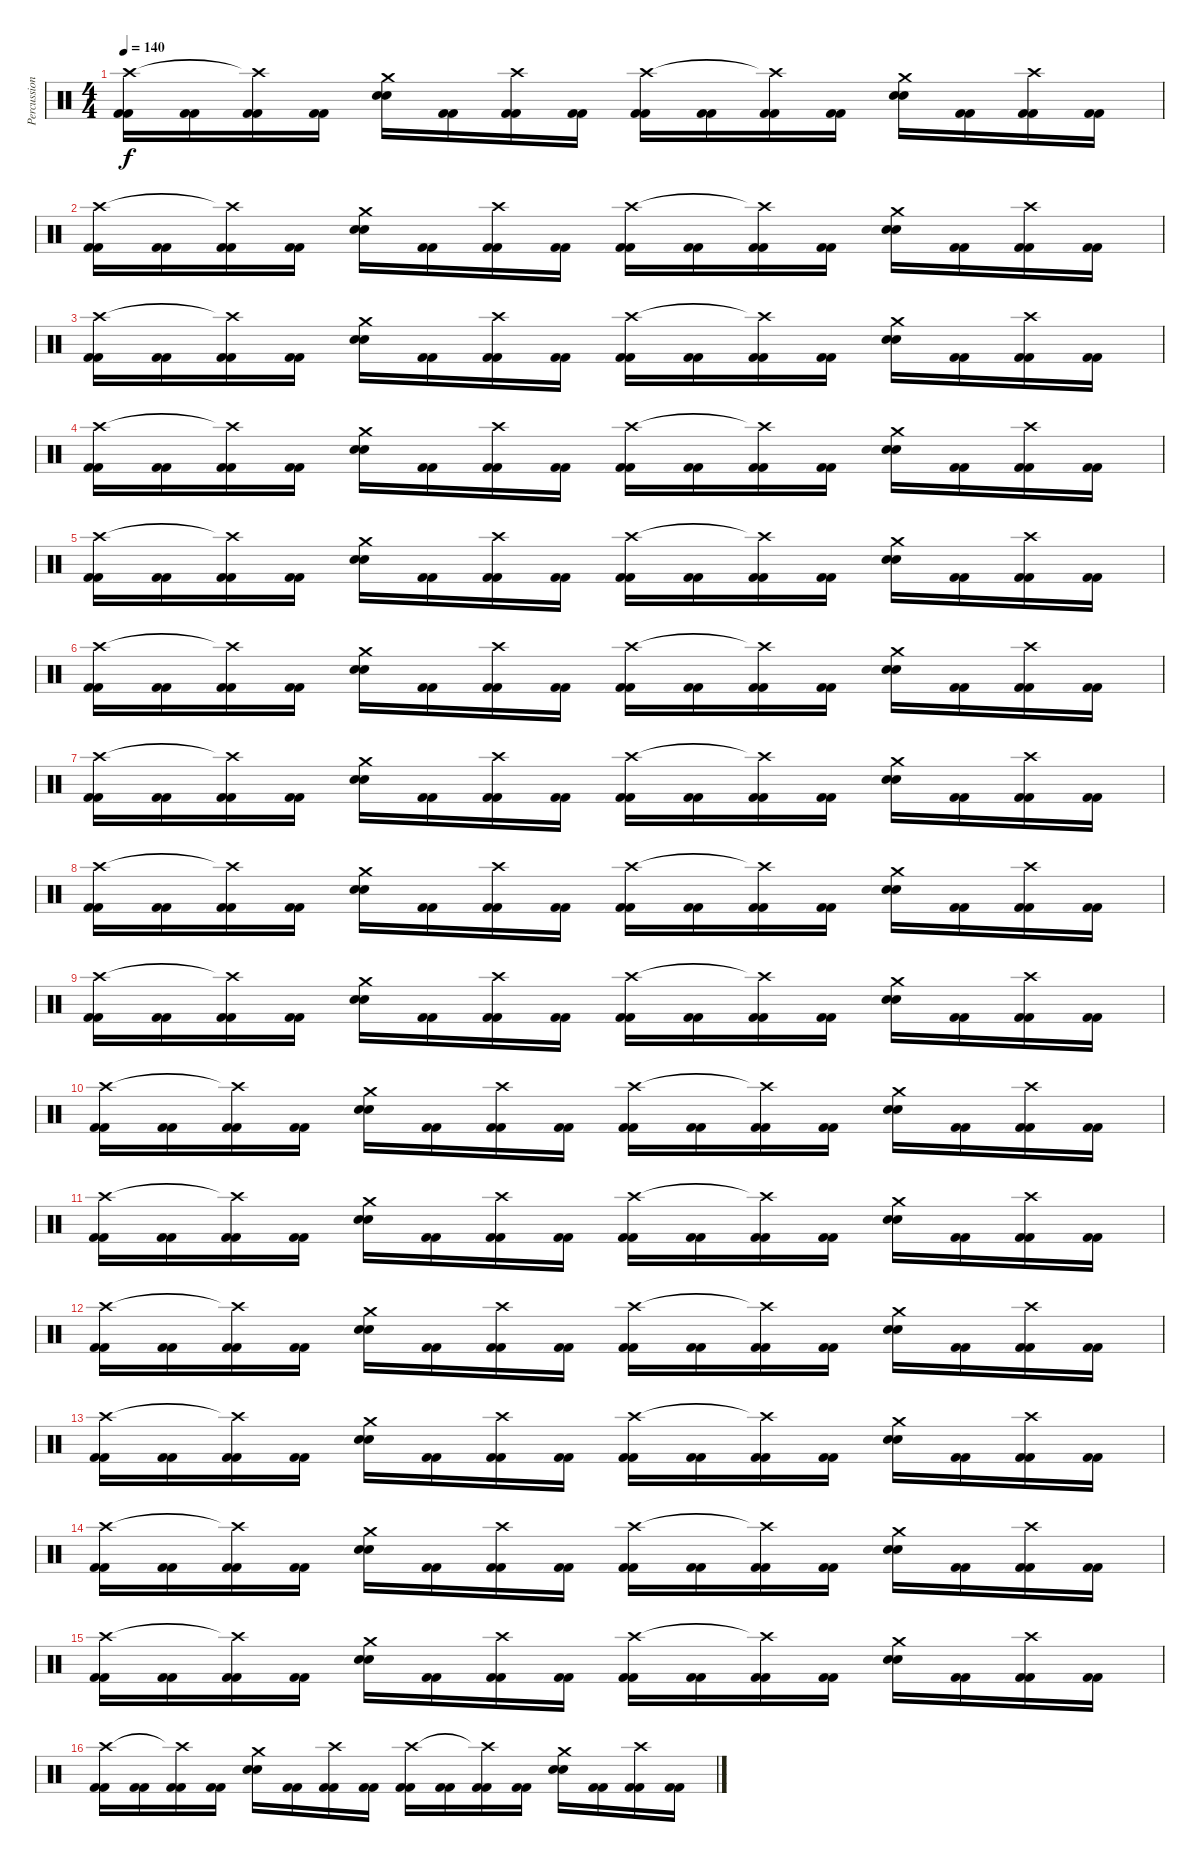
\track ("Percussion" "Percussion") {instrument percussion}
\staff {score}
\articulation defaults
\ts (4 4)
\tempo 140
\clef neutral
\ks c
("Kick (hit) 2" "Kick (hit) 2" "Crash high (hit)").16{dy f} ("Kick (hit) 2" "Kick (hit) 2").16 ("Kick (hit) 2" "Kick (hit) 2" "Crash high (hit)"{t}).16 ("Kick (hit) 2" "Kick (hit) 2").16 ("Snare (hit) 2" "Snare (hit) 2" "Crash medium (hit)").16 ("Kick (hit) 2" "Kick (hit) 2").16 ("Kick (hit) 2" "Kick (hit) 2" "Crash high (hit)").16 ("Kick (hit) 2" "Kick (hit) 2").16 ("Kick (hit) 2" "Kick (hit) 2" "Crash high (hit)").16 ("Kick (hit) 2" "Kick (hit) 2").16 ("Kick (hit) 2" "Kick (hit) 2" "Crash high (hit)"{t}).16 ("Kick (hit) 2" "Kick (hit) 2").16 ("Snare (hit) 2" "Snare (hit) 2" "Crash medium (hit)").16 ("Kick (hit) 2" "Kick (hit) 2").16 ("Kick (hit) 2" "Kick (hit) 2" "Crash high (hit)").16 ("Kick (hit) 2" "Kick (hit) 2").16 |
("Kick (hit) 2" "Kick (hit) 2" "Crash high (hit)").16 ("Kick (hit) 2" "Kick (hit) 2").16 ("Kick (hit) 2" "Kick (hit) 2" "Crash high (hit)"{t}).16 ("Kick (hit) 2" "Kick (hit) 2").16 ("Snare (hit) 2" "Snare (hit) 2" "Crash medium (hit)").16 ("Kick (hit) 2" "Kick (hit) 2").16 ("Kick (hit) 2" "Kick (hit) 2" "Crash high (hit)").16 ("Kick (hit) 2" "Kick (hit) 2").16 ("Kick (hit) 2" "Kick (hit) 2" "Crash high (hit)").16 ("Kick (hit) 2" "Kick (hit) 2").16 ("Kick (hit) 2" "Kick (hit) 2" "Crash high (hit)"{t}).16 ("Kick (hit) 2" "Kick (hit) 2").16 ("Snare (hit) 2" "Snare (hit) 2" "Crash medium (hit)").16 ("Kick (hit) 2" "Kick (hit) 2").16 ("Kick (hit) 2" "Kick (hit) 2" "Crash high (hit)").16 ("Kick (hit) 2" "Kick (hit) 2").16 |
("Kick (hit) 2" "Kick (hit) 2" "Crash high (hit)").16 ("Kick (hit) 2" "Kick (hit) 2").16 ("Kick (hit) 2" "Kick (hit) 2" "Crash high (hit)"{t}).16 ("Kick (hit) 2" "Kick (hit) 2").16 ("Snare (hit) 2" "Snare (hit) 2" "Crash medium (hit)").16 ("Kick (hit) 2" "Kick (hit) 2").16 ("Kick (hit) 2" "Kick (hit) 2" "Crash high (hit)").16 ("Kick (hit) 2" "Kick (hit) 2").16 ("Kick (hit) 2" "Kick (hit) 2" "Crash high (hit)").16 ("Kick (hit) 2" "Kick (hit) 2").16 ("Kick (hit) 2" "Kick (hit) 2" "Crash high (hit)"{t}).16 ("Kick (hit) 2" "Kick (hit) 2").16 ("Snare (hit) 2" "Snare (hit) 2" "Crash medium (hit)").16 ("Kick (hit) 2" "Kick (hit) 2").16 ("Kick (hit) 2" "Kick (hit) 2" "Crash high (hit)").16 ("Kick (hit) 2" "Kick (hit) 2").16 |
("Kick (hit) 2" "Kick (hit) 2" "Crash high (hit)").16 ("Kick (hit) 2" "Kick (hit) 2").16 ("Kick (hit) 2" "Kick (hit) 2" "Crash high (hit)"{t}).16 ("Kick (hit) 2" "Kick (hit) 2").16 ("Snare (hit) 2" "Snare (hit) 2" "Crash medium (hit)").16 ("Kick (hit) 2" "Kick (hit) 2").16 ("Kick (hit) 2" "Kick (hit) 2" "Crash high (hit)").16 ("Kick (hit) 2" "Kick (hit) 2").16 ("Kick (hit) 2" "Kick (hit) 2" "Crash high (hit)").16 ("Kick (hit) 2" "Kick (hit) 2").16 ("Kick (hit) 2" "Kick (hit) 2" "Crash high (hit)"{t}).16 ("Kick (hit) 2" "Kick (hit) 2").16 ("Snare (hit) 2" "Snare (hit) 2" "Crash medium (hit)").16 ("Kick (hit) 2" "Kick (hit) 2").16 ("Kick (hit) 2" "Kick (hit) 2" "Crash high (hit)").16 ("Kick (hit) 2" "Kick (hit) 2").16 |
("Kick (hit) 2" "Kick (hit) 2" "Crash high (hit)").16 ("Kick (hit) 2" "Kick (hit) 2").16 ("Kick (hit) 2" "Kick (hit) 2" "Crash high (hit)"{t}).16 ("Kick (hit) 2" "Kick (hit) 2").16 ("Snare (hit) 2" "Snare (hit) 2" "Crash medium (hit)").16 ("Kick (hit) 2" "Kick (hit) 2").16 ("Kick (hit) 2" "Kick (hit) 2" "Crash high (hit)").16 ("Kick (hit) 2" "Kick (hit) 2").16 ("Kick (hit) 2" "Kick (hit) 2" "Crash high (hit)").16 ("Kick (hit) 2" "Kick (hit) 2").16 ("Kick (hit) 2" "Kick (hit) 2" "Crash high (hit)"{t}).16 ("Kick (hit) 2" "Kick (hit) 2").16 ("Snare (hit) 2" "Snare (hit) 2" "Crash medium (hit)").16 ("Kick (hit) 2" "Kick (hit) 2").16 ("Kick (hit) 2" "Kick (hit) 2" "Crash high (hit)").16 ("Kick (hit) 2" "Kick (hit) 2").16 |
("Kick (hit) 2" "Kick (hit) 2" "Crash high (hit)").16 ("Kick (hit) 2" "Kick (hit) 2").16 ("Kick (hit) 2" "Kick (hit) 2" "Crash high (hit)"{t}).16 ("Kick (hit) 2" "Kick (hit) 2").16 ("Snare (hit) 2" "Snare (hit) 2" "Crash medium (hit)").16 ("Kick (hit) 2" "Kick (hit) 2").16 ("Kick (hit) 2" "Kick (hit) 2" "Crash high (hit)").16 ("Kick (hit) 2" "Kick (hit) 2").16 ("Kick (hit) 2" "Kick (hit) 2" "Crash high (hit)").16 ("Kick (hit) 2" "Kick (hit) 2").16 ("Kick (hit) 2" "Kick (hit) 2" "Crash high (hit)"{t}).16 ("Kick (hit) 2" "Kick (hit) 2").16 ("Snare (hit) 2" "Snare (hit) 2" "Crash medium (hit)").16 ("Kick (hit) 2" "Kick (hit) 2").16 ("Kick (hit) 2" "Kick (hit) 2" "Crash high (hit)").16 ("Kick (hit) 2" "Kick (hit) 2").16 |
("Kick (hit) 2" "Kick (hit) 2" "Crash high (hit)").16 ("Kick (hit) 2" "Kick (hit) 2").16 ("Kick (hit) 2" "Kick (hit) 2" "Crash high (hit)"{t}).16 ("Kick (hit) 2" "Kick (hit) 2").16 ("Snare (hit) 2" "Snare (hit) 2" "Crash medium (hit)").16 ("Kick (hit) 2" "Kick (hit) 2").16 ("Kick (hit) 2" "Kick (hit) 2" "Crash high (hit)").16 ("Kick (hit) 2" "Kick (hit) 2").16 ("Kick (hit) 2" "Kick (hit) 2" "Crash high (hit)").16 ("Kick (hit) 2" "Kick (hit) 2").16 ("Kick (hit) 2" "Kick (hit) 2" "Crash high (hit)"{t}).16 ("Kick (hit) 2" "Kick (hit) 2").16 ("Snare (hit) 2" "Snare (hit) 2" "Crash medium (hit)").16 ("Kick (hit) 2" "Kick (hit) 2").16 ("Kick (hit) 2" "Kick (hit) 2" "Crash high (hit)").16 ("Kick (hit) 2" "Kick (hit) 2").16 |
("Kick (hit) 2" "Kick (hit) 2" "Crash high (hit)").16 ("Kick (hit) 2" "Kick (hit) 2").16 ("Kick (hit) 2" "Kick (hit) 2" "Crash high (hit)"{t}).16 ("Kick (hit) 2" "Kick (hit) 2").16 ("Snare (hit) 2" "Snare (hit) 2" "Crash medium (hit)").16 ("Kick (hit) 2" "Kick (hit) 2").16 ("Kick (hit) 2" "Kick (hit) 2" "Crash high (hit)").16 ("Kick (hit) 2" "Kick (hit) 2").16 ("Kick (hit) 2" "Kick (hit) 2" "Crash high (hit)").16 ("Kick (hit) 2" "Kick (hit) 2").16 ("Kick (hit) 2" "Kick (hit) 2" "Crash high (hit)"{t}).16 ("Kick (hit) 2" "Kick (hit) 2").16 ("Snare (hit) 2" "Snare (hit) 2" "Crash medium (hit)").16 ("Kick (hit) 2" "Kick (hit) 2").16 ("Kick (hit) 2" "Kick (hit) 2" "Crash high (hit)").16 ("Kick (hit) 2" "Kick (hit) 2").16 |
("Kick (hit) 2" "Kick (hit) 2" "Crash high (hit)").16 ("Kick (hit) 2" "Kick (hit) 2").16 ("Kick (hit) 2" "Kick (hit) 2" "Crash high (hit)"{t}).16 ("Kick (hit) 2" "Kick (hit) 2").16 ("Snare (hit) 2" "Snare (hit) 2" "Crash medium (hit)").16 ("Kick (hit) 2" "Kick (hit) 2").16 ("Kick (hit) 2" "Kick (hit) 2" "Crash high (hit)").16 ("Kick (hit) 2" "Kick (hit) 2").16 ("Kick (hit) 2" "Kick (hit) 2" "Crash high (hit)").16 ("Kick (hit) 2" "Kick (hit) 2").16 ("Kick (hit) 2" "Kick (hit) 2" "Crash high (hit)"{t}).16 ("Kick (hit) 2" "Kick (hit) 2").16 ("Snare (hit) 2" "Snare (hit) 2" "Crash medium (hit)").16 ("Kick (hit) 2" "Kick (hit) 2").16 ("Kick (hit) 2" "Kick (hit) 2" "Crash high (hit)").16 ("Kick (hit) 2" "Kick (hit) 2").16 |
("Kick (hit) 2" "Kick (hit) 2" "Crash high (hit)").16 ("Kick (hit) 2" "Kick (hit) 2").16 ("Kick (hit) 2" "Kick (hit) 2" "Crash high (hit)"{t}).16 ("Kick (hit) 2" "Kick (hit) 2").16 ("Snare (hit) 2" "Snare (hit) 2" "Crash medium (hit)").16 ("Kick (hit) 2" "Kick (hit) 2").16 ("Kick (hit) 2" "Kick (hit) 2" "Crash high (hit)").16 ("Kick (hit) 2" "Kick (hit) 2").16 ("Kick (hit) 2" "Kick (hit) 2" "Crash high (hit)").16 ("Kick (hit) 2" "Kick (hit) 2").16 ("Kick (hit) 2" "Kick (hit) 2" "Crash high (hit)"{t}).16 ("Kick (hit) 2" "Kick (hit) 2").16 ("Snare (hit) 2" "Snare (hit) 2" "Crash medium (hit)").16 ("Kick (hit) 2" "Kick (hit) 2").16 ("Kick (hit) 2" "Kick (hit) 2" "Crash high (hit)").16 ("Kick (hit) 2" "Kick (hit) 2").16 |
("Kick (hit) 2" "Kick (hit) 2" "Crash high (hit)").16 ("Kick (hit) 2" "Kick (hit) 2").16 ("Kick (hit) 2" "Kick (hit) 2" "Crash high (hit)"{t}).16 ("Kick (hit) 2" "Kick (hit) 2").16 ("Snare (hit) 2" "Snare (hit) 2" "Crash medium (hit)").16 ("Kick (hit) 2" "Kick (hit) 2").16 ("Kick (hit) 2" "Kick (hit) 2" "Crash high (hit)").16 ("Kick (hit) 2" "Kick (hit) 2").16 ("Kick (hit) 2" "Kick (hit) 2" "Crash high (hit)").16 ("Kick (hit) 2" "Kick (hit) 2").16 ("Kick (hit) 2" "Kick (hit) 2" "Crash high (hit)"{t}).16 ("Kick (hit) 2" "Kick (hit) 2").16 ("Snare (hit) 2" "Snare (hit) 2" "Crash medium (hit)").16 ("Kick (hit) 2" "Kick (hit) 2").16 ("Kick (hit) 2" "Kick (hit) 2" "Crash high (hit)").16 ("Kick (hit) 2" "Kick (hit) 2").16 |
("Kick (hit) 2" "Kick (hit) 2" "Crash high (hit)").16 ("Kick (hit) 2" "Kick (hit) 2").16 ("Kick (hit) 2" "Kick (hit) 2" "Crash high (hit)"{t}).16 ("Kick (hit) 2" "Kick (hit) 2").16 ("Snare (hit) 2" "Snare (hit) 2" "Crash medium (hit)").16 ("Kick (hit) 2" "Kick (hit) 2").16 ("Kick (hit) 2" "Kick (hit) 2" "Crash high (hit)").16 ("Kick (hit) 2" "Kick (hit) 2").16 ("Kick (hit) 2" "Kick (hit) 2" "Crash high (hit)").16 ("Kick (hit) 2" "Kick (hit) 2").16 ("Kick (hit) 2" "Kick (hit) 2" "Crash high (hit)"{t}).16 ("Kick (hit) 2" "Kick (hit) 2").16 ("Snare (hit) 2" "Snare (hit) 2" "Crash medium (hit)").16 ("Kick (hit) 2" "Kick (hit) 2").16 ("Kick (hit) 2" "Kick (hit) 2" "Crash high (hit)").16 ("Kick (hit) 2" "Kick (hit) 2").16 |
("Kick (hit) 2" "Kick (hit) 2" "Crash high (hit)").16 ("Kick (hit) 2" "Kick (hit) 2").16 ("Kick (hit) 2" "Kick (hit) 2" "Crash high (hit)"{t}).16 ("Kick (hit) 2" "Kick (hit) 2").16 ("Snare (hit) 2" "Snare (hit) 2" "Crash medium (hit)").16 ("Kick (hit) 2" "Kick (hit) 2").16 ("Kick (hit) 2" "Kick (hit) 2" "Crash high (hit)").16 ("Kick (hit) 2" "Kick (hit) 2").16 ("Kick (hit) 2" "Kick (hit) 2" "Crash high (hit)").16 ("Kick (hit) 2" "Kick (hit) 2").16 ("Kick (hit) 2" "Kick (hit) 2" "Crash high (hit)"{t}).16 ("Kick (hit) 2" "Kick (hit) 2").16 ("Snare (hit) 2" "Snare (hit) 2" "Crash medium (hit)").16 ("Kick (hit) 2" "Kick (hit) 2").16 ("Kick (hit) 2" "Kick (hit) 2" "Crash high (hit)").16 ("Kick (hit) 2" "Kick (hit) 2").16 |
("Kick (hit) 2" "Kick (hit) 2" "Crash high (hit)").16 ("Kick (hit) 2" "Kick (hit) 2").16 ("Kick (hit) 2" "Kick (hit) 2" "Crash high (hit)"{t}).16 ("Kick (hit) 2" "Kick (hit) 2").16 ("Snare (hit) 2" "Snare (hit) 2" "Crash medium (hit)").16 ("Kick (hit) 2" "Kick (hit) 2").16 ("Kick (hit) 2" "Kick (hit) 2" "Crash high (hit)").16 ("Kick (hit) 2" "Kick (hit) 2").16 ("Kick (hit) 2" "Kick (hit) 2" "Crash high (hit)").16 ("Kick (hit) 2" "Kick (hit) 2").16 ("Kick (hit) 2" "Kick (hit) 2" "Crash high (hit)"{t}).16 ("Kick (hit) 2" "Kick (hit) 2").16 ("Snare (hit) 2" "Snare (hit) 2" "Crash medium (hit)").16 ("Kick (hit) 2" "Kick (hit) 2").16 ("Kick (hit) 2" "Kick (hit) 2" "Crash high (hit)").16 ("Kick (hit) 2" "Kick (hit) 2").16 |
("Kick (hit) 2" "Kick (hit) 2" "Crash high (hit)").16 ("Kick (hit) 2" "Kick (hit) 2").16 ("Kick (hit) 2" "Kick (hit) 2" "Crash high (hit)"{t}).16 ("Kick (hit) 2" "Kick (hit) 2").16 ("Snare (hit) 2" "Snare (hit) 2" "Crash medium (hit)").16 ("Kick (hit) 2" "Kick (hit) 2").16 ("Kick (hit) 2" "Kick (hit) 2" "Crash high (hit)").16 ("Kick (hit) 2" "Kick (hit) 2").16 ("Kick (hit) 2" "Kick (hit) 2" "Crash high (hit)").16 ("Kick (hit) 2" "Kick (hit) 2").16 ("Kick (hit) 2" "Kick (hit) 2" "Crash high (hit)"{t}).16 ("Kick (hit) 2" "Kick (hit) 2").16 ("Snare (hit) 2" "Snare (hit) 2" "Crash medium (hit)").16 ("Kick (hit) 2" "Kick (hit) 2").16 ("Kick (hit) 2" "Kick (hit) 2" "Crash high (hit)").16 ("Kick (hit) 2" "Kick (hit) 2").16 |
("Kick (hit) 2" "Kick (hit) 2" "Crash high (hit)").16 ("Kick (hit) 2" "Kick (hit) 2").16 ("Kick (hit) 2" "Kick (hit) 2" "Crash high (hit)"{t}).16 ("Kick (hit) 2" "Kick (hit) 2").16 ("Snare (hit) 2" "Snare (hit) 2" "Crash medium (hit)").16 ("Kick (hit) 2" "Kick (hit) 2").16 ("Kick (hit) 2" "Kick (hit) 2" "Crash high (hit)").16 ("Kick (hit) 2" "Kick (hit) 2").16 ("Kick (hit) 2" "Kick (hit) 2" "Crash high (hit)").16 ("Kick (hit) 2" "Kick (hit) 2").16 ("Kick (hit) 2" "Kick (hit) 2" "Crash high (hit)"{t}).16 ("Kick (hit) 2" "Kick (hit) 2").16 ("Snare (hit) 2" "Snare (hit) 2" "Crash medium (hit)").16 ("Kick (hit) 2" "Kick (hit) 2").16 ("Kick (hit) 2" "Kick (hit) 2" "Crash high (hit)").16 ("Kick (hit) 2" "Kick (hit) 2").16
